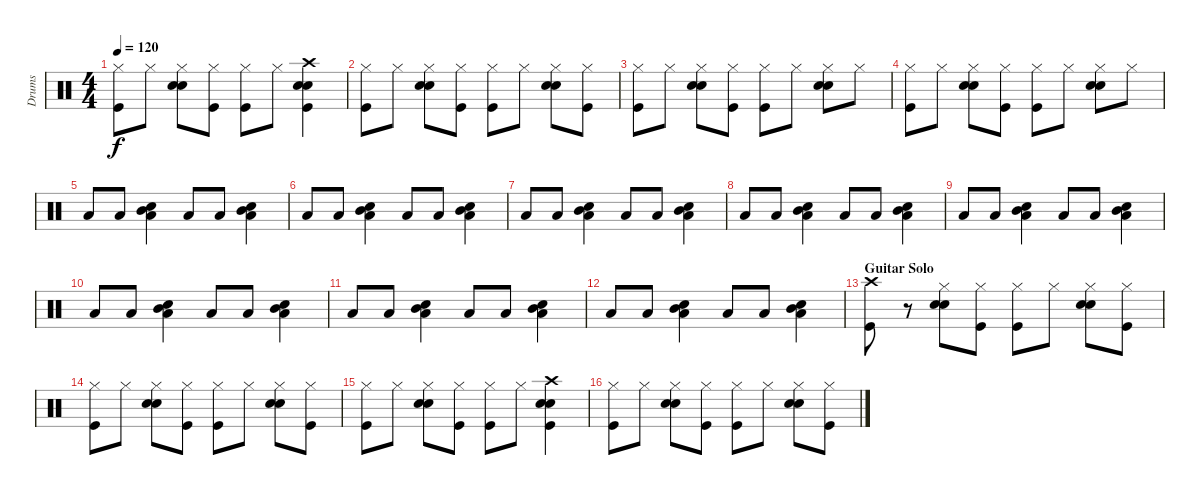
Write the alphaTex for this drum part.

\track ("Drums" "Drums") {instrument percussion}
\staff {score}
\articulation defaults
\ts (4 4)
\tempo 120
\clef neutral
\ks c
("Hi-Hat (closed)" "Kick (hit)").8{dy f} "Hi-Hat (closed)".8 ("Hi-Hat (closed)" "Snare (hit) 2" "Hand Clap (hit)").8 ("Hi-Hat (closed)" "Kick (hit)").8 ("Hi-Hat (closed)" "Kick (hit)").8 "Hi-Hat (closed)".8 ("Crash high (hit)" "Snare (hit) 2" "Hand Clap (hit)" "Kick (hit)").4 |
("Hi-Hat (closed)" "Kick (hit)").8 "Hi-Hat (closed)".8 ("Hi-Hat (closed)" "Snare (hit) 2" "Hand Clap (hit)").8 ("Hi-Hat (closed)" "Kick (hit)").8 ("Hi-Hat (closed)" "Kick (hit)").8 "Hi-Hat (closed)".8 ("Hi-Hat (closed)" "Snare (hit) 2" "Hand Clap (hit)").8 ("Hi-Hat (closed)" "Kick (hit)").8 |
("Hi-Hat (closed)" "Kick (hit)").8 "Hi-Hat (closed)".8 ("Hi-Hat (closed)" "Snare (hit) 2" "Hand Clap (hit)").8 ("Hi-Hat (closed)" "Kick (hit)").8 ("Hi-Hat (closed)" "Kick (hit)").8 "Hi-Hat (closed)".8 ("Hi-Hat (closed)" "Snare (hit) 2" "Hand Clap (hit)").8 "Hi-Hat (closed)".8 |
("Hi-Hat (closed)" "Kick (hit)").8 "Hi-Hat (closed)".8 ("Hi-Hat (closed)" "Snare (hit) 2" "Hand Clap (hit)").8 ("Hi-Hat (closed)" "Kick (hit)").8 ("Hi-Hat (closed)" "Kick (hit)").8 "Hi-Hat (closed)".8 ("Hi-Hat (closed)" "Snare (hit) 2" "Hand Clap (hit)").8 "Hi-Hat (closed)".8 |
"Low Tom (hit)".8 "Low Tom (hit)".8 ("Hand Clap (hit)" "Mid Tom (hit)" "Low Tom (hit)").4 "Low Tom (hit)".8 "Low Tom (hit)".8 ("Hand Clap (hit)" "Mid Tom (hit)" "Low Tom (hit)").4 |
"Low Tom (hit)".8 "Low Tom (hit)".8 ("Hand Clap (hit)" "Mid Tom (hit)" "Low Tom (hit)").4 "Low Tom (hit)".8 "Low Tom (hit)".8 ("Hand Clap (hit)" "Mid Tom (hit)" "Low Tom (hit)").4 |
"Low Tom (hit)".8 "Low Tom (hit)".8 ("Hand Clap (hit)" "Mid Tom (hit)" "Low Tom (hit)").4 "Low Tom (hit)".8 "Low Tom (hit)".8 ("Hand Clap (hit)" "Mid Tom (hit)" "Low Tom (hit)").4 |
"Low Tom (hit)".8 "Low Tom (hit)".8 ("Hand Clap (hit)" "Mid Tom (hit)" "Low Tom (hit)").4 "Low Tom (hit)".8 "Low Tom (hit)".8 ("Hand Clap (hit)" "Mid Tom (hit)" "Low Tom (hit)").4 |
"Low Tom (hit)".8 "Low Tom (hit)".8 ("Hand Clap (hit)" "Mid Tom (hit)" "Low Tom (hit)").4 "Low Tom (hit)".8 "Low Tom (hit)".8 ("Hand Clap (hit)" "Mid Tom (hit)" "Low Tom (hit)").4 |
"Low Tom (hit)".8 "Low Tom (hit)".8 ("Hand Clap (hit)" "Mid Tom (hit)" "Low Tom (hit)").4 "Low Tom (hit)".8 "Low Tom (hit)".8 ("Hand Clap (hit)" "Mid Tom (hit)" "Low Tom (hit)").4 |
"Low Tom (hit)".8 "Low Tom (hit)".8 ("Hand Clap (hit)" "Mid Tom (hit)" "Low Tom (hit)").4 "Low Tom (hit)".8 "Low Tom (hit)".8 ("Hand Clap (hit)" "Mid Tom (hit)" "Low Tom (hit)").4 |
"Low Tom (hit)".8 "Low Tom (hit)".8 ("Hand Clap (hit)" "Mid Tom (hit)" "Low Tom (hit)").4 "Low Tom (hit)".8 "Low Tom (hit)".8 ("Hand Clap (hit)" "Mid Tom (hit)" "Low Tom (hit)").4 |
\section ("" "Guitar Solo")
("Crash high (hit)" "Kick (hit)").8 r.8 ("Hi-Hat (closed)" "Snare (hit) 2" "Hand Clap (hit)").8 ("Hi-Hat (closed)" "Kick (hit)").8 ("Hi-Hat (closed)" "Kick (hit)").8 "Hi-Hat (closed)".8 ("Hi-Hat (closed)" "Snare (hit) 2" "Hand Clap (hit)").8 ("Hi-Hat (closed)" "Kick (hit)").8 |
("Hi-Hat (closed)" "Kick (hit)").8 "Hi-Hat (closed)".8 ("Hi-Hat (closed)" "Snare (hit) 2" "Hand Clap (hit)").8 ("Hi-Hat (closed)" "Kick (hit)").8 ("Hi-Hat (closed)" "Kick (hit)").8 "Hi-Hat (closed)".8 ("Hi-Hat (closed)" "Snare (hit) 2" "Hand Clap (hit)").8 ("Hi-Hat (closed)" "Kick (hit)").8 |
("Hi-Hat (closed)" "Kick (hit)").8 "Hi-Hat (closed)".8 ("Hi-Hat (closed)" "Snare (hit) 2" "Hand Clap (hit)").8 ("Hi-Hat (closed)" "Kick (hit)").8 ("Hi-Hat (closed)" "Kick (hit)").8 "Hi-Hat (closed)".8 ("Crash high (hit)" "Snare (hit) 2" "Hand Clap (hit)" "Kick (hit)").4 |
("Hi-Hat (closed)" "Kick (hit)").8 "Hi-Hat (closed)".8 ("Hi-Hat (closed)" "Snare (hit) 2" "Hand Clap (hit)").8 ("Hi-Hat (closed)" "Kick (hit)").8 ("Hi-Hat (closed)" "Kick (hit)").8 "Hi-Hat (closed)".8 ("Hi-Hat (closed)" "Snare (hit) 2" "Hand Clap (hit)").8 ("Hi-Hat (closed)" "Kick (hit)").8
